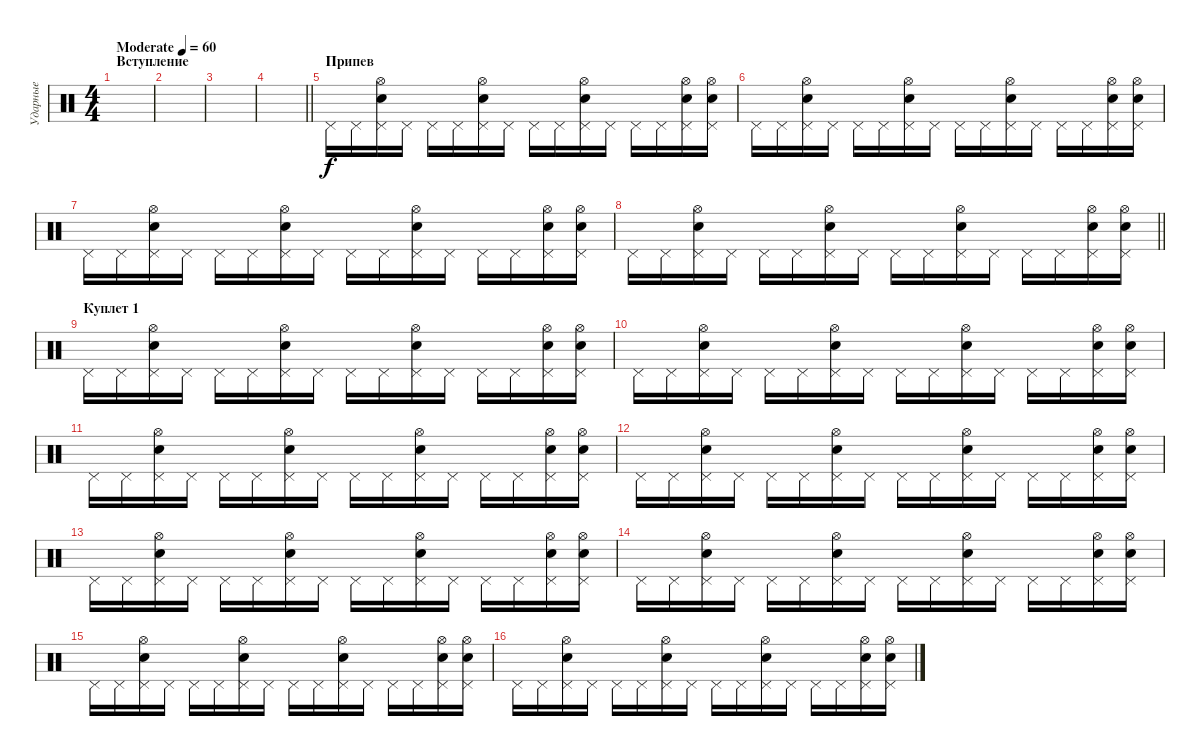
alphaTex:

\track ("Ударные" "Ударные") {instrument percussion}
\staff {score}
\articulation defaults
\ts (4 4)
\section ("" "Вступление")
\tempo (60 "Moderate")
\clef neutral
\ks c
|
|
|
\barLineRight lightlight
|
\section ("" "Припев")
"Pedal Hi-Hat (hit)".16 "Pedal Hi-Hat (hit)".16 ("Pedal Hi-Hat (hit)" "Electric Snare (hit)" "Hi-Hat (open)").16 "Pedal Hi-Hat (hit)".16 "Pedal Hi-Hat (hit)".16 "Pedal Hi-Hat (hit)".16 ("Pedal Hi-Hat (hit)" "Electric Snare (hit)" "Hi-Hat (open)").16 "Pedal Hi-Hat (hit)".16 "Pedal Hi-Hat (hit)".16 "Pedal Hi-Hat (hit)".16 ("Pedal Hi-Hat (hit)" "Electric Snare (hit)" "Hi-Hat (open)").16 "Pedal Hi-Hat (hit)".16 "Pedal Hi-Hat (hit)".16 "Pedal Hi-Hat (hit)".16 ("Pedal Hi-Hat (hit)" "Electric Snare (hit)" "Hi-Hat (open)").16 ("Pedal Hi-Hat (hit)" "Electric Snare (hit)" "Hi-Hat (open)").16 |
"Pedal Hi-Hat (hit)".16 "Pedal Hi-Hat (hit)".16 ("Pedal Hi-Hat (hit)" "Electric Snare (hit)" "Hi-Hat (open)").16 "Pedal Hi-Hat (hit)".16 "Pedal Hi-Hat (hit)".16 "Pedal Hi-Hat (hit)".16 ("Pedal Hi-Hat (hit)" "Electric Snare (hit)" "Hi-Hat (open)").16 "Pedal Hi-Hat (hit)".16 "Pedal Hi-Hat (hit)".16 "Pedal Hi-Hat (hit)".16 ("Pedal Hi-Hat (hit)" "Electric Snare (hit)" "Hi-Hat (open)").16 "Pedal Hi-Hat (hit)".16 "Pedal Hi-Hat (hit)".16 "Pedal Hi-Hat (hit)".16 ("Pedal Hi-Hat (hit)" "Electric Snare (hit)" "Hi-Hat (open)").16 ("Pedal Hi-Hat (hit)" "Electric Snare (hit)" "Hi-Hat (open)").16 |
"Pedal Hi-Hat (hit)".16 "Pedal Hi-Hat (hit)".16 ("Pedal Hi-Hat (hit)" "Electric Snare (hit)" "Hi-Hat (open)").16 "Pedal Hi-Hat (hit)".16 "Pedal Hi-Hat (hit)".16 "Pedal Hi-Hat (hit)".16 ("Pedal Hi-Hat (hit)" "Electric Snare (hit)" "Hi-Hat (open)").16 "Pedal Hi-Hat (hit)".16 "Pedal Hi-Hat (hit)".16 "Pedal Hi-Hat (hit)".16 ("Pedal Hi-Hat (hit)" "Electric Snare (hit)" "Hi-Hat (open)").16 "Pedal Hi-Hat (hit)".16 "Pedal Hi-Hat (hit)".16 "Pedal Hi-Hat (hit)".16 ("Pedal Hi-Hat (hit)" "Electric Snare (hit)" "Hi-Hat (open)").16 ("Pedal Hi-Hat (hit)" "Electric Snare (hit)" "Hi-Hat (open)").16 |
\barLineRight lightlight "Pedal Hi-Hat (hit)".16 "Pedal Hi-Hat (hit)".16
("Pedal Hi-Hat (hit)" "Electric Snare (hit)" "Hi-Hat (open)").16 "Pedal Hi-Hat (hit)".16 "Pedal Hi-Hat (hit)".16 "Pedal Hi-Hat (hit)".16 ("Pedal Hi-Hat (hit)" "Electric Snare (hit)" "Hi-Hat (open)").16 "Pedal Hi-Hat (hit)".16 "Pedal Hi-Hat (hit)".16 "Pedal Hi-Hat (hit)".16 ("Pedal Hi-Hat (hit)" "Electric Snare (hit)" "Hi-Hat (open)").16 "Pedal Hi-Hat (hit)".16 "Pedal Hi-Hat (hit)".16 "Pedal Hi-Hat (hit)".16 ("Pedal Hi-Hat (hit)" "Electric Snare (hit)" "Hi-Hat (open)").16 ("Pedal Hi-Hat (hit)" "Electric Snare (hit)" "Hi-Hat (open)").16 |
\section ("" "Куплет 1")
"Pedal Hi-Hat (hit)".16 "Pedal Hi-Hat (hit)".16 ("Pedal Hi-Hat (hit)" "Electric Snare (hit)" "Hi-Hat (open)").16 "Pedal Hi-Hat (hit)".16 "Pedal Hi-Hat (hit)".16 "Pedal Hi-Hat (hit)".16 ("Pedal Hi-Hat (hit)" "Electric Snare (hit)" "Hi-Hat (open)").16 "Pedal Hi-Hat (hit)".16 "Pedal Hi-Hat (hit)".16 "Pedal Hi-Hat (hit)".16 ("Pedal Hi-Hat (hit)" "Electric Snare (hit)" "Hi-Hat (open)").16 "Pedal Hi-Hat (hit)".16 "Pedal Hi-Hat (hit)".16 "Pedal Hi-Hat (hit)".16 ("Pedal Hi-Hat (hit)" "Electric Snare (hit)" "Hi-Hat (open)").16 ("Pedal Hi-Hat (hit)" "Electric Snare (hit)" "Hi-Hat (open)").16 |
"Pedal Hi-Hat (hit)".16 "Pedal Hi-Hat (hit)".16 ("Pedal Hi-Hat (hit)" "Electric Snare (hit)" "Hi-Hat (open)").16 "Pedal Hi-Hat (hit)".16 "Pedal Hi-Hat (hit)".16 "Pedal Hi-Hat (hit)".16 ("Pedal Hi-Hat (hit)" "Electric Snare (hit)" "Hi-Hat (open)").16 "Pedal Hi-Hat (hit)".16 "Pedal Hi-Hat (hit)".16 "Pedal Hi-Hat (hit)".16 ("Pedal Hi-Hat (hit)" "Electric Snare (hit)" "Hi-Hat (open)").16 "Pedal Hi-Hat (hit)".16 "Pedal Hi-Hat (hit)".16 "Pedal Hi-Hat (hit)".16 ("Pedal Hi-Hat (hit)" "Electric Snare (hit)" "Hi-Hat (open)").16 ("Pedal Hi-Hat (hit)" "Electric Snare (hit)" "Hi-Hat (open)").16 |
"Pedal Hi-Hat (hit)".16 "Pedal Hi-Hat (hit)".16 ("Pedal Hi-Hat (hit)" "Electric Snare (hit)" "Hi-Hat (open)").16 "Pedal Hi-Hat (hit)".16 "Pedal Hi-Hat (hit)".16 "Pedal Hi-Hat (hit)".16 ("Pedal Hi-Hat (hit)" "Electric Snare (hit)" "Hi-Hat (open)").16 "Pedal Hi-Hat (hit)".16 "Pedal Hi-Hat (hit)".16 "Pedal Hi-Hat (hit)".16 ("Pedal Hi-Hat (hit)" "Electric Snare (hit)" "Hi-Hat (open)").16 "Pedal Hi-Hat (hit)".16 "Pedal Hi-Hat (hit)".16 "Pedal Hi-Hat (hit)".16 ("Pedal Hi-Hat (hit)" "Electric Snare (hit)" "Hi-Hat (open)").16 ("Pedal Hi-Hat (hit)" "Electric Snare (hit)" "Hi-Hat (open)").16 |
"Pedal Hi-Hat (hit)".16 "Pedal Hi-Hat (hit)".16 ("Pedal Hi-Hat (hit)" "Electric Snare (hit)" "Hi-Hat (open)").16 "Pedal Hi-Hat (hit)".16 "Pedal Hi-Hat (hit)".16 "Pedal Hi-Hat (hit)".16 ("Pedal Hi-Hat (hit)" "Electric Snare (hit)" "Hi-Hat (open)").16 "Pedal Hi-Hat (hit)".16 "Pedal Hi-Hat (hit)".16 "Pedal Hi-Hat (hit)".16 ("Pedal Hi-Hat (hit)" "Electric Snare (hit)" "Hi-Hat (open)").16 "Pedal Hi-Hat (hit)".16 "Pedal Hi-Hat (hit)".16 "Pedal Hi-Hat (hit)".16 ("Pedal Hi-Hat (hit)" "Electric Snare (hit)" "Hi-Hat (open)").16 ("Pedal Hi-Hat (hit)" "Electric Snare (hit)" "Hi-Hat (open)").16 |
"Pedal Hi-Hat (hit)".16 "Pedal Hi-Hat (hit)".16 ("Pedal Hi-Hat (hit)" "Electric Snare (hit)" "Hi-Hat (open)").16 "Pedal Hi-Hat (hit)".16 "Pedal Hi-Hat (hit)".16 "Pedal Hi-Hat (hit)".16 ("Pedal Hi-Hat (hit)" "Electric Snare (hit)" "Hi-Hat (open)").16 "Pedal Hi-Hat (hit)".16 "Pedal Hi-Hat (hit)".16 "Pedal Hi-Hat (hit)".16 ("Pedal Hi-Hat (hit)" "Electric Snare (hit)" "Hi-Hat (open)").16 "Pedal Hi-Hat (hit)".16 "Pedal Hi-Hat (hit)".16 "Pedal Hi-Hat (hit)".16 ("Pedal Hi-Hat (hit)" "Electric Snare (hit)" "Hi-Hat (open)").16 ("Pedal Hi-Hat (hit)" "Electric Snare (hit)" "Hi-Hat (open)").16 |
"Pedal Hi-Hat (hit)".16 "Pedal Hi-Hat (hit)".16 ("Pedal Hi-Hat (hit)" "Electric Snare (hit)" "Hi-Hat (open)").16 "Pedal Hi-Hat (hit)".16 "Pedal Hi-Hat (hit)".16 "Pedal Hi-Hat (hit)".16 ("Pedal Hi-Hat (hit)" "Electric Snare (hit)" "Hi-Hat (open)").16 "Pedal Hi-Hat (hit)".16 "Pedal Hi-Hat (hit)".16 "Pedal Hi-Hat (hit)".16 ("Pedal Hi-Hat (hit)" "Electric Snare (hit)" "Hi-Hat (open)").16 "Pedal Hi-Hat (hit)".16 "Pedal Hi-Hat (hit)".16 "Pedal Hi-Hat (hit)".16 ("Pedal Hi-Hat (hit)" "Electric Snare (hit)" "Hi-Hat (open)").16 ("Pedal Hi-Hat (hit)" "Electric Snare (hit)" "Hi-Hat (open)").16 |
"Pedal Hi-Hat (hit)".16 "Pedal Hi-Hat (hit)".16 ("Pedal Hi-Hat (hit)" "Electric Snare (hit)" "Hi-Hat (open)").16 "Pedal Hi-Hat (hit)".16 "Pedal Hi-Hat (hit)".16 "Pedal Hi-Hat (hit)".16 ("Pedal Hi-Hat (hit)" "Electric Snare (hit)" "Hi-Hat (open)").16 "Pedal Hi-Hat (hit)".16 "Pedal Hi-Hat (hit)".16 "Pedal Hi-Hat (hit)".16 ("Pedal Hi-Hat (hit)" "Electric Snare (hit)" "Hi-Hat (open)").16 "Pedal Hi-Hat (hit)".16 "Pedal Hi-Hat (hit)".16 "Pedal Hi-Hat (hit)".16 ("Pedal Hi-Hat (hit)" "Electric Snare (hit)" "Hi-Hat (open)").16 ("Pedal Hi-Hat (hit)" "Electric Snare (hit)" "Hi-Hat (open)").16 |
"Pedal Hi-Hat (hit)".16 "Pedal Hi-Hat (hit)".16 ("Pedal Hi-Hat (hit)" "Electric Snare (hit)" "Hi-Hat (open)").16 "Pedal Hi-Hat (hit)".16 "Pedal Hi-Hat (hit)".16 "Pedal Hi-Hat (hit)".16 ("Pedal Hi-Hat (hit)" "Electric Snare (hit)" "Hi-Hat (open)").16 "Pedal Hi-Hat (hit)".16 "Pedal Hi-Hat (hit)".16 "Pedal Hi-Hat (hit)".16 ("Pedal Hi-Hat (hit)" "Electric Snare (hit)" "Hi-Hat (open)").16 "Pedal Hi-Hat (hit)".16 "Pedal Hi-Hat (hit)".16 "Pedal Hi-Hat (hit)".16 ("Pedal Hi-Hat (hit)" "Electric Snare (hit)" "Hi-Hat (open)").16 ("Pedal Hi-Hat (hit)" "Electric Snare (hit)" "Hi-Hat (open)").16
